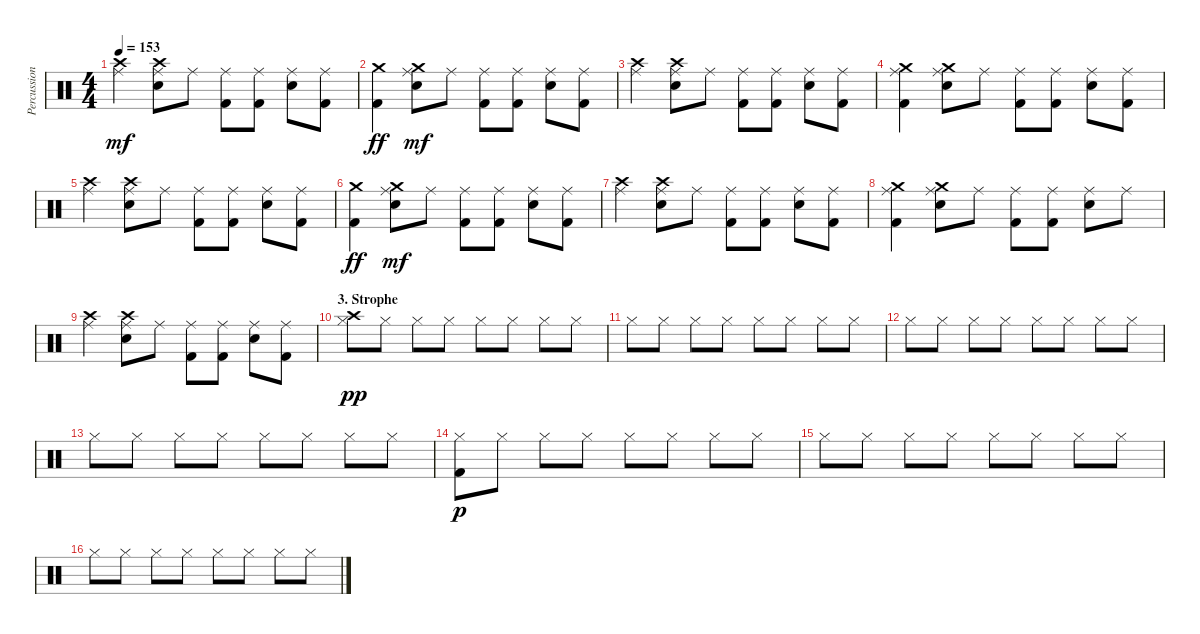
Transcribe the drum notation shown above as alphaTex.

\track ("Percussion" "Percussion") {instrument percussion}
\staff {score}
\articulation defaults
\ts (4 4)
\tempo 153
\clef neutral
\ks c
("Crash high (hit)" "Ride (middle)").4{dy mf} ("Crash high (hit)" "Ride (middle)" "Electric Snare (hit)").8 "Ride (middle)".8 ("Ride (middle)" "Kick (hit) 2").8 ("Ride (middle)" "Kick (hit) 2").8 ("Ride (middle)" "Electric Snare (hit)").8 ("Ride (middle)" "Kick (hit) 2").8 |
("Crash medium (hit)" "Kick (hit) 2").4{dy ff} ("Crash medium (hit)" "Ride (middle)" "Electric Snare (hit)").8{dy mf} "Ride (middle)".8 ("Ride (middle)" "Kick (hit) 2").8 ("Ride (middle)" "Kick (hit) 2").8 ("Ride (middle)" "Electric Snare (hit)").8 ("Ride (middle)" "Kick (hit) 2").8 |
("Crash high (hit)" "Ride (middle)").4 ("Crash high (hit)" "Ride (middle)" "Electric Snare (hit)").8 "Ride (middle)".8 ("Ride (middle)" "Kick (hit) 2").8 ("Ride (middle)" "Kick (hit) 2").8 ("Ride (middle)" "Electric Snare (hit)").8 ("Ride (middle)" "Kick (hit) 2").8 |
("Crash medium (hit)" "Ride (middle)" "Kick (hit) 2").4 ("Crash medium (hit)" "Ride (middle)" "Electric Snare (hit)").8 "Ride (middle)".8 ("Ride (middle)" "Kick (hit) 2").8 ("Ride (middle)" "Kick (hit) 2").8 ("Ride (middle)" "Electric Snare (hit)").8 ("Ride (middle)" "Kick (hit) 2").8 |
("Crash high (hit)" "Ride (middle)").4 ("Crash high (hit)" "Ride (middle)" "Electric Snare (hit)").8 "Ride (middle)".8 ("Ride (middle)" "Kick (hit) 2").8 ("Ride (middle)" "Kick (hit) 2").8 ("Ride (middle)" "Electric Snare (hit)").8 ("Ride (middle)" "Kick (hit) 2").8 |
("Crash medium (hit)" "Kick (hit) 2").4{dy ff} ("Crash medium (hit)" "Ride (middle)" "Electric Snare (hit)").8{dy mf} "Ride (middle)".8 ("Ride (middle)" "Kick (hit) 2").8 ("Ride (middle)" "Kick (hit) 2").8 ("Ride (middle)" "Electric Snare (hit)").8 ("Ride (middle)" "Kick (hit) 2").8 |
("Crash high (hit)" "Ride (middle)").4 ("Crash high (hit)" "Ride (middle)" "Electric Snare (hit)").8 "Ride (middle)".8 ("Ride (middle)" "Kick (hit) 2").8 ("Ride (middle)" "Kick (hit) 2").8 ("Ride (middle)" "Electric Snare (hit)").8 ("Ride (middle)" "Kick (hit) 2").8 |
("Crash medium (hit)" "Ride (middle)" "Kick (hit) 2").4 ("Crash medium (hit)" "Ride (middle)" "Electric Snare (hit)").8 "Ride (middle)".8 ("Ride (middle)" "Kick (hit) 2").8 ("Ride (middle)" "Kick (hit) 2").8 ("Ride (middle)" "Electric Snare (hit)").8 "Ride (middle)".8 |
("Crash high (hit)" "Ride (middle)").4 ("Crash high (hit)" "Ride (middle)" "Electric Snare (hit)").8 "Ride (middle)".8 ("Ride (middle)" "Kick (hit) 2").8 ("Ride (middle)" "Kick (hit) 2").8 ("Ride (middle)" "Electric Snare (hit)").8 ("Ride (middle)" "Kick (hit) 2").8 |
\section ("" "3. Strophe")
("Crash high (hit)" "Hi-Hat (closed)").8{dy pp} "Hi-Hat (closed)".8 "Hi-Hat (closed)".8 "Hi-Hat (closed)".8 "Hi-Hat (closed)".8 "Hi-Hat (closed)".8 "Hi-Hat (closed)".8 "Hi-Hat (closed)".8 |
"Hi-Hat (closed)".8 "Hi-Hat (closed)".8 "Hi-Hat (closed)".8 "Hi-Hat (closed)".8 "Hi-Hat (closed)".8 "Hi-Hat (closed)".8 "Hi-Hat (closed)".8 "Hi-Hat (closed)".8 |
"Hi-Hat (closed)".8 "Hi-Hat (closed)".8 "Hi-Hat (closed)".8 "Hi-Hat (closed)".8 "Hi-Hat (closed)".8 "Hi-Hat (closed)".8 "Hi-Hat (closed)".8 "Hi-Hat (closed)".8 |
"Hi-Hat (closed)".8 "Hi-Hat (closed)".8 "Hi-Hat (closed)".8 "Hi-Hat (closed)".8 "Hi-Hat (closed)".8 "Hi-Hat (closed)".8 "Hi-Hat (closed)".8 "Hi-Hat (closed)".8 |
("Hi-Hat (closed)" "Kick (hit) 2").8{dy p} "Hi-Hat (closed)".8 "Hi-Hat (closed)".8 "Hi-Hat (closed)".8 "Hi-Hat (closed)".8 "Hi-Hat (closed)".8 "Hi-Hat (closed)".8 "Hi-Hat (closed)".8 |
"Hi-Hat (closed)".8 "Hi-Hat (closed)".8 "Hi-Hat (closed)".8 "Hi-Hat (closed)".8 "Hi-Hat (closed)".8 "Hi-Hat (closed)".8 "Hi-Hat (closed)".8 "Hi-Hat (closed)".8 |
"Hi-Hat (closed)".8 "Hi-Hat (closed)".8 "Hi-Hat (closed)".8 "Hi-Hat (closed)".8 "Hi-Hat (closed)".8 "Hi-Hat (closed)".8 "Hi-Hat (closed)".8 "Hi-Hat (closed)".8
